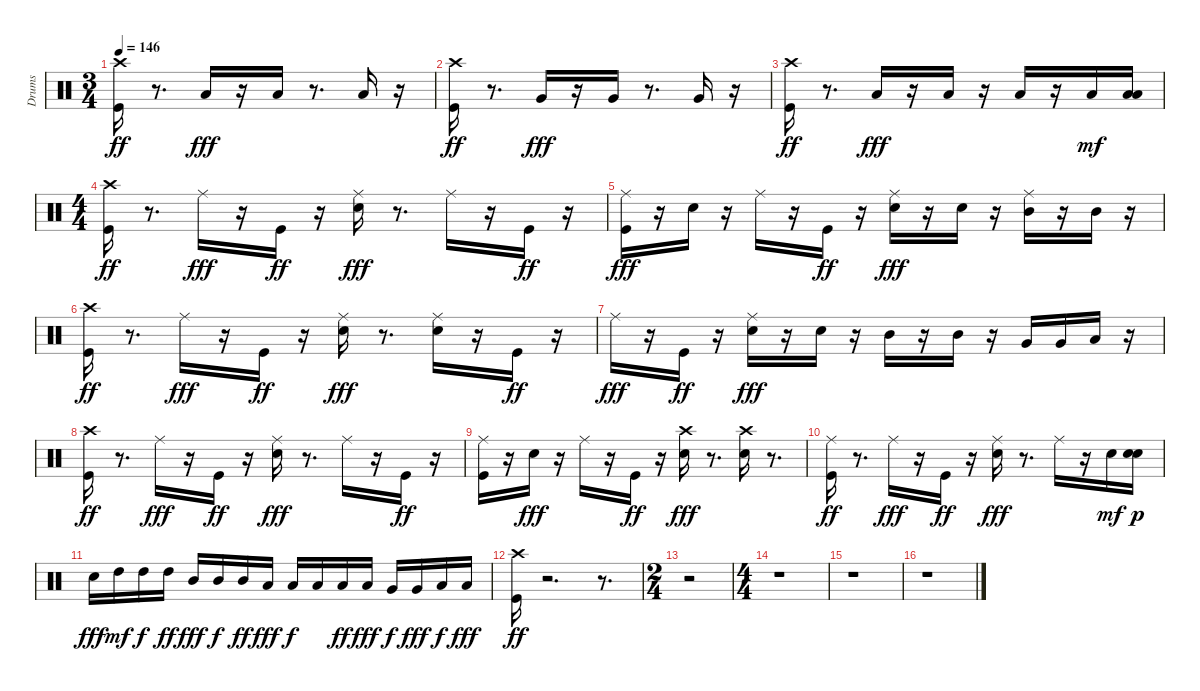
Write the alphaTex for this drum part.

\track ("Drums" "Drums") {instrument percussion}
\staff {score}
\articulation defaults
\ts (3 4)
\tempo 146
\clef neutral
\ks c
("Crash high (hit)" "Kick (hit)").16{dy ff volume 13} r.8{d} "Low Floor Tom (hit)".16{dy fff} r.16 "Low Floor Tom (hit)".16 r.8{d} "Low Floor Tom (hit)".16 r.16 |
("Crash high (hit)" "Kick (hit)").16{dy ff} r.8{d} "Very Low Tom (hit)".16{dy fff} r.16 "Very Low Tom (hit)".16 r.8{d} "Very Low Tom (hit)".16 r.16 |
("Crash high (hit)" "Kick (hit)").16{dy ff} r.8{d} "Low Floor Tom (hit)".16{dy fff} r.16 "Low Floor Tom (hit)".16 r.16 "Low Floor Tom (hit)".16 r.16 "Low Floor Tom (hit)".16{dy mf} ("Low Floor Tom (hit)" "Low Floor Tom (hit)").16 |
\ts (4 4)
("Crash high (hit)" "Kick (hit)").16{dy ff} r.8{d} "Ride (middle)".16{dy fff} r.16 "Kick (hit)".16{dy ff} r.16 ("Ride (middle)" "Snare (hit) 2").16{dy fff} r.8{d} "Ride (middle)".16 r.16 "Kick (hit)".16{dy ff} r.16 |
("Kick (hit)" "Ride (middle)").16{dy fff} r.16 "Snare (hit) 2".16 r.16 "Ride (middle)".16 r.16 "Kick (hit)".16{dy ff} r.16 ("Snare (hit) 2" "Ride (middle)").16{dy fff} r.16 "Snare (hit) 2".16 r.16 ("Mid Tom (hit)" "Ride (middle)").16 r.16 "Mid Tom (hit)".16 r.16 |
("Crash high (hit)" "Kick (hit)").16{dy ff} r.8{d} "Ride (middle)".16{dy fff} r.16 "Kick (hit)".16{dy ff} r.16 ("Ride (middle)" "Snare (hit) 2").16{dy fff} r.8{d} ("Snare (hit) 2" "Ride (middle)").16 r.16 "Kick (hit)".16{dy ff} r.16 |
"Ride (middle)".16{dy fff} r.16 "Kick (hit)".16{dy ff} r.16 ("Ride (middle)" "Snare (hit) 2").16{dy fff} r.16 "Snare (hit) 2".16 r.16 "Mid Tom (hit)".16 r.16 "Mid Tom (hit)".16 r.16 "Very Low Tom (hit)".16 "Very Low Tom (hit)".16 "Low Floor Tom (hit)".16 r.16 |
("Crash high (hit)" "Kick (hit)").16{dy ff} r.8{d} "Ride (middle)".16{dy fff} r.16 "Kick (hit)".16{dy ff} r.16 ("Ride (middle)" "Snare (hit) 2").16{dy fff} r.8{d} "Ride (middle)".16 r.16 "Kick (hit)".16{dy ff} r.16 |
("Ride (middle)" "Kick (hit)").16 r.16 "Snare (hit) 2".16{dy fff} r.16 "Ride (middle)".16 r.16 "Kick (hit)".16{dy ff} r.16 ("Crash high (hit)" "Snare (hit) 2").16{dy fff} r.8{d} ("Crash high (hit)" "Snare (hit) 2").16 r.8{d} |
("Ride (middle)" "Kick (hit)").16{dy ff} r.8{d} "Ride (middle)".16{dy fff} r.16 "Kick (hit)".16{dy ff} r.16 ("Ride (middle)" "Snare (hit) 2").16{dy fff} r.8{d} "Ride (middle)".16 r.16 "Snare (hit) 2".16{dy mf} ("Snare (hit) 2" "Snare (hit) 2").16{dy p} |
"Snare (hit) 2".16{dy fff} "High Tom (hit)".16{dy mf} "High Tom (hit)".16{dy f} "High Tom (hit)".16{dy ff} "Mid Tom (hit)".16{dy fff} "Mid Tom (hit)".16{dy f} "Mid Tom (hit)".16{dy ff} "Low Tom (hit)".16{dy fff} "Low Tom (hit)".16{dy f} "Low Tom (hit)".16 "Low Tom (hit)".16{dy ff} "Low Tom (hit)".16{dy fff} "Very Low Tom (hit)".16{dy f} "Very Low Tom (hit)".16{dy fff} "Low Floor Tom (hit)".16{dy f} "Low Floor Tom (hit)".16{dy fff} |
("Crash high (hit)" "Kick (hit)").16{dy ff} r.2{d} r.8{d} |
\ts (2 4)
r.2 |
\ts (4 4)
r.1 |
r.1 |
r.1
